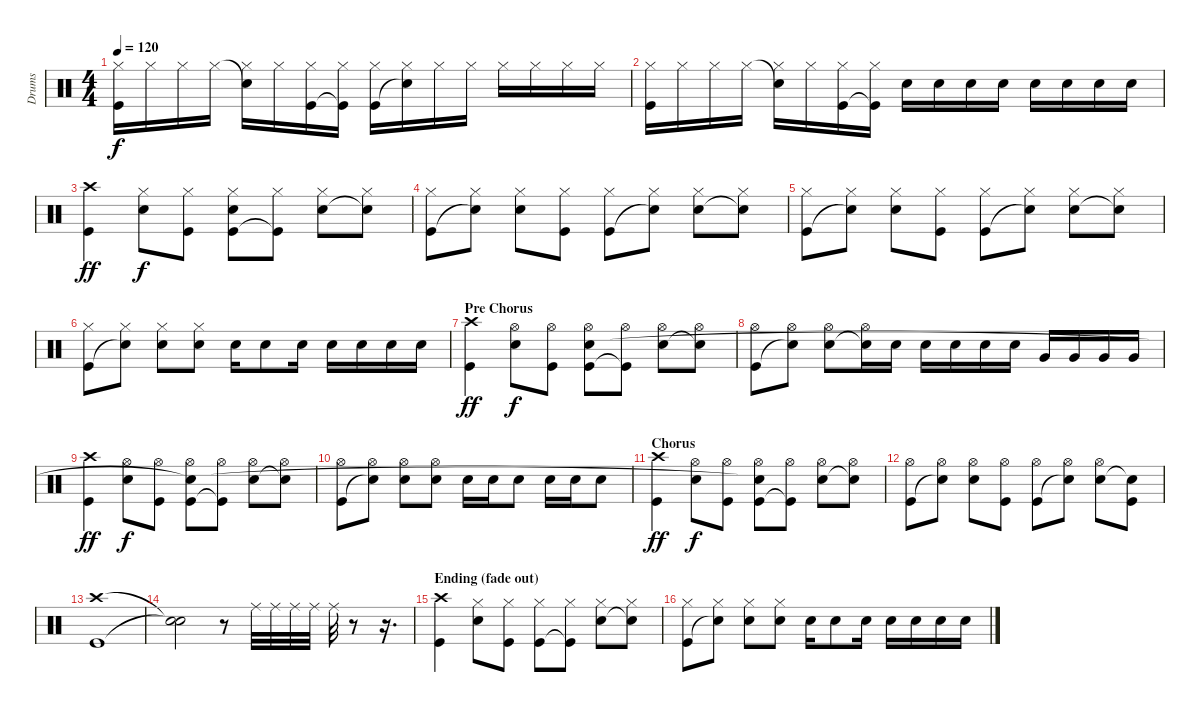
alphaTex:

\track ("Drums" "Drums") {instrument percussion}
\staff {score}
\articulation defaults
\ts (4 4)
\tempo 120
\clef neutral
\ks c
("Kick (hit)" "Hi-Hat (closed)").16{dy f} "Hi-Hat (closed)".16 "Hi-Hat (closed)".16 "Hi-Hat (closed)".16 ("Snare (hit)"{t} "Hi-Hat (closed)").16 "Hi-Hat (closed)".16 ("Kick (hit)" "Hi-Hat (closed)").16 ("Kick (hit)"{t} "Hi-Hat (closed)").16 ("Kick (hit)" "Hi-Hat (closed)").16 ("Snare (hit)"{t} "Hi-Hat (closed)").16 "Hi-Hat (closed)".16 "Hi-Hat (closed)".16 "Hi-Hat (closed)".16 "Hi-Hat (closed)".16 "Hi-Hat (closed)".16 "Hi-Hat (closed)".16 |
("Kick (hit)" "Hi-Hat (closed)").16 "Hi-Hat (closed)".16 "Hi-Hat (closed)".16 "Hi-Hat (closed)".16 ("Snare (hit)"{t} "Hi-Hat (closed)").16 "Hi-Hat (closed)".16 ("Kick (hit)" "Hi-Hat (closed)").16 ("Kick (hit)"{t} "Hi-Hat (closed)").16 "Snare (hit) 2".16 "Snare (hit) 2".16 "Snare (hit) 2".16 "Snare (hit) 2".16 "Snare (hit) 2".16 "Snare (hit) 2".16 "Snare (hit) 2".16 "Snare (hit) 2".16 |
("Kick (hit)" "Crash high (hit)").4{dy ff} ("Snare (hit) 2" "Hi-Hat (closed)").8{dy f} ("Kick (hit)" "Hi-Hat (closed)").8 ("Kick (hit)" "Hi-Hat (closed)" "Snare (hit)").8 ("Kick (hit)"{t} "Hi-Hat (closed)").8 ("Snare (hit) 2" "Hi-Hat (closed)").8 ("Snare (hit)"{t} "Hi-Hat (closed)").8 |
("Kick (hit)" "Hi-Hat (closed)").8 ("Snare (hit)"{t} "Hi-Hat (closed)").8 ("Snare (hit) 2" "Hi-Hat (closed)").8 ("Kick (hit)" "Hi-Hat (closed)").8 ("Kick (hit)" "Hi-Hat (closed)").8 ("Snare (hit)"{t} "Hi-Hat (closed)").8 ("Snare (hit) 2" "Hi-Hat (closed)").8 ("Snare (hit)"{t} "Hi-Hat (closed)").8 |
("Kick (hit)" "Hi-Hat (closed)").8 ("Snare (hit)"{t} "Hi-Hat (closed)").8 ("Snare (hit) 2" "Hi-Hat (closed)").8 ("Kick (hit)" "Hi-Hat (closed)").8 ("Kick (hit)" "Hi-Hat (closed)").8 ("Snare (hit)"{t} "Hi-Hat (closed)").8 ("Snare (hit) 2" "Hi-Hat (closed)").8 ("Snare (hit)"{t} "Hi-Hat (closed)").8 |
("Kick (hit)" "Hi-Hat (closed)").8 ("Snare (hit)"{t} "Hi-Hat (closed)").8 ("Snare (hit) 2" "Hi-Hat (closed)").8 ("Snare (hit) 2" "Hi-Hat (closed)").8 "Snare (hit) 2".16 "Snare (hit) 2".8 "Snare (hit) 2".16 "Snare (hit) 2".16 "Snare (hit) 2".16 "Snare (hit) 2".16 "Snare (hit) 2".16 |
\section ("" "Pre Chorus")
("Kick (hit)" "Crash high (hit)").4{dy ff} ("Snare (hit) 2" "Hi-Hat (open)").8{dy f} ("Kick (hit)" "Hi-Hat (open)").8 ("Kick (hit)" "Hi-Hat (open)" "Snare (hit)").8 ("Kick (hit)"{t} "Hi-Hat (open)").8 ("Snare (hit) 2" "Hi-Hat (open)").8 ("Snare (hit)"{t} "Hi-Hat (open)").8 |
("Kick (hit)" "Hi-Hat (open)").8 ("Snare (hit)"{t} "Hi-Hat (open)").8 ("Snare (hit) 2" "Hi-Hat (open)").8 ("Snare (hit)"{t} "Hi-Hat (open)").16 "Snare (hit) 2".16 "Snare (hit) 2".16 "Snare (hit) 2".16 "Snare (hit) 2".16 "Snare (hit) 2".16 "Very Low Tom (hit)".16 "Very Low Tom (hit)".16 "Very Low Tom (hit)".16 "Very Low Tom (hit)".16 |
("Kick (hit)" "Crash high (hit)").4{dy ff} ("Snare (hit) 2" "Hi-Hat (open)").8{dy f} ("Kick (hit)" "Hi-Hat (open)").8 ("Kick (hit)" "Hi-Hat (open)" "Snare (hit)"{t}).8 ("Kick (hit)"{t} "Hi-Hat (open)").8 ("Snare (hit) 2" "Hi-Hat (open)").8 ("Snare (hit)"{t} "Hi-Hat (open)").8 |
("Kick (hit)" "Hi-Hat (open)").8 ("Snare (hit)"{t} "Hi-Hat (open)").8 ("Snare (hit) 2" "Hi-Hat (open)").8 ("Snare (hit) 2" "Hi-Hat (open)").8 "Snare (hit) 2".16 "Snare (hit) 2".16 "Snare (hit) 2".8 "Snare (hit) 2".16 "Snare (hit) 2".16 "Snare (hit) 2".8 |
\section ("" "Chorus")
("Kick (hit)" "Crash high (hit)").4{dy ff} ("Snare (hit) 2" "Hi-Hat (open)").8{dy f} ("Kick (hit)" "Hi-Hat (open)").8 ("Kick (hit)" "Hi-Hat (open)" "Snare (hit)"{t}).8 ("Kick (hit)"{t} "Hi-Hat (open)").8 ("Snare (hit) 2" "Hi-Hat (open)").8 ("Snare (hit)"{t} "Hi-Hat (open)").8 |
("Kick (hit)" "Hi-Hat (open)").8 ("Snare (hit)"{t} "Hi-Hat (open)").8 ("Snare (hit) 2" "Hi-Hat (open)").8 ("Kick (hit)" "Hi-Hat (open)").8 ("Kick (hit)" "Hi-Hat (open)").8 ("Snare (hit)"{t} "Hi-Hat (open)").8 ("Snare (hit) 2" "Hi-Hat (open)").8 ("Snare (hit)"{t} "Kick (hit)").8 |
("Kick (hit)" "Crash high (hit)").1 |
("Snare (hit)"{t} "Snare (hit)"{t}).2 r.8 "Ride (middle)".32 "Ride (middle)".32 "Ride (middle)".32 "Ride (middle)".32 "Ride (middle)".32 r.8 r.16{d} |
\section ("" "Ending (fade out)")
("Kick (hit)" "Crash high (hit)").4 ("Snare (hit) 2" "Hi-Hat (closed)").8 ("Kick (hit)" "Hi-Hat (closed)").8 ("Kick (hit)" "Hi-Hat (closed)").8 ("Kick (hit)"{t} "Hi-Hat (closed)").8 ("Snare (hit) 2" "Hi-Hat (closed)").8 ("Snare (hit)"{t} "Hi-Hat (closed)").8 |
("Kick (hit)" "Hi-Hat (closed)").8 ("Snare (hit)"{t} "Hi-Hat (closed)").8 ("Snare (hit) 2" "Hi-Hat (closed)").8 ("Snare (hit) 2" "Hi-Hat (closed)").8 "Snare (hit) 2".16 "Snare (hit) 2".8 "Snare (hit) 2".16 "Snare (hit) 2".16 "Snare (hit) 2".16 "Snare (hit) 2".16 "Snare (hit) 2".16
